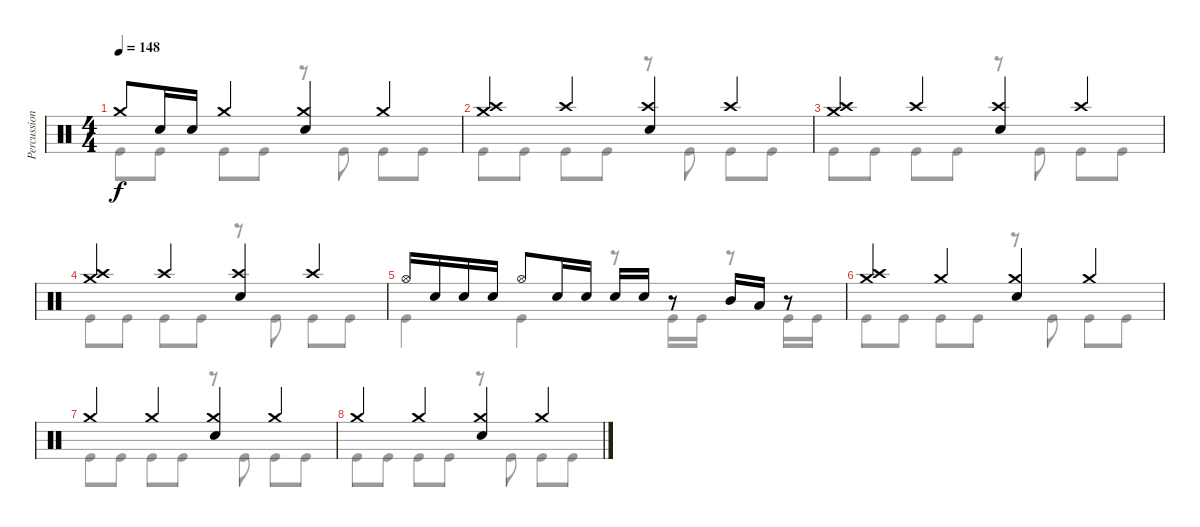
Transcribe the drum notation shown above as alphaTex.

\track ("Percussion" "Percussion") {instrument percussion}
\staff {score}
\articulation defaults
\voice
\ts (4 4)
\tempo 148
\clef neutral
\ks c "Crash medium (hit)".8{dy f} "Electric Snare (hit)".16 "Electric Snare (hit)".16 "Crash medium (hit)".4
("Crash medium (hit)" "Electric Snare (hit)").4 "Crash medium (hit)".4 |
("Crash medium (hit)" "Crash high (hit)").4 "Crash high (hit)".4 ("Crash high (hit)" "Electric Snare (hit)").4 "Crash high (hit)".4 |
("Crash medium (hit)" "Crash high (hit)").4 "Crash high (hit)".4 ("Crash high (hit)" "Electric Snare (hit)").4 "Crash high (hit)".4 |
("Crash medium (hit)" "Crash high (hit)").4 "Crash high (hit)".4 ("Crash high (hit)" "Electric Snare (hit)").4 "Crash high (hit)".4 |
"Hi-Hat (open)".16 "Electric Snare (hit)".16 "Electric Snare (hit)".16 "Electric Snare (hit)".16 "Hi-Hat (open)".8 "Electric Snare (hit)".16 "Electric Snare (hit)".16 "Electric Snare (hit)".16 "Electric Snare (hit)".16 r.8 "Mid Tom (hit)".16 "Low Tom (hit)".16 r.8 |
("Crash medium (hit)" "Crash high (hit)").4 "Crash medium (hit)".4 ("Crash medium (hit)" "Electric Snare (hit)").4 "Crash medium (hit)".4 |
"Crash medium (hit)".4 "Crash medium (hit)".4 ("Crash medium (hit)" "Electric Snare (hit)").4 "Crash medium (hit)".4 |
"Crash medium (hit)".4 "Crash medium (hit)".4 ("Crash medium (hit)" "Electric Snare (hit)").4 "Crash medium (hit)".4
\voice
\clef neutral
\ottava regular
\simile none
\ks c "Kick (hit)".8{dy f} "Kick (hit)".8 "Kick (hit)".8 "Kick (hit)".8
r.8 "Kick (hit)".8 "Kick (hit)".8 "Kick (hit)".8 |
"Kick (hit)".8 "Kick (hit)".8 "Kick (hit)".8 "Kick (hit)".8 r.8 "Kick (hit)".8 "Kick (hit)".8 "Kick (hit)".8 |
"Kick (hit)".8 "Kick (hit)".8 "Kick (hit)".8 "Kick (hit)".8 r.8 "Kick (hit)".8 "Kick (hit)".8 "Kick (hit)".8 |
"Kick (hit)".8 "Kick (hit)".8 "Kick (hit)".8 "Kick (hit)".8 r.8 "Kick (hit)".8 "Kick (hit)".8 "Kick (hit)".8 |
"Kick (hit)".4 "Kick (hit)".4 r.8 "Kick (hit)".16 "Kick (hit)".16 r.8 "Kick (hit)".16 "Kick (hit)".16 |
"Kick (hit)".8 "Kick (hit)".8 "Kick (hit)".8 "Kick (hit)".8 r.8 "Kick (hit)".8 "Kick (hit)".8 "Kick (hit)".8 |
"Kick (hit)".8 "Kick (hit)".8 "Kick (hit)".8 "Kick (hit)".8 r.8 "Kick (hit)".8 "Kick (hit)".8 "Kick (hit)".8 |
"Kick (hit)".8 "Kick (hit)".8 "Kick (hit)".8 "Kick (hit)".8 r.8 "Kick (hit)".8 "Kick (hit)".8 "Kick (hit)".8
